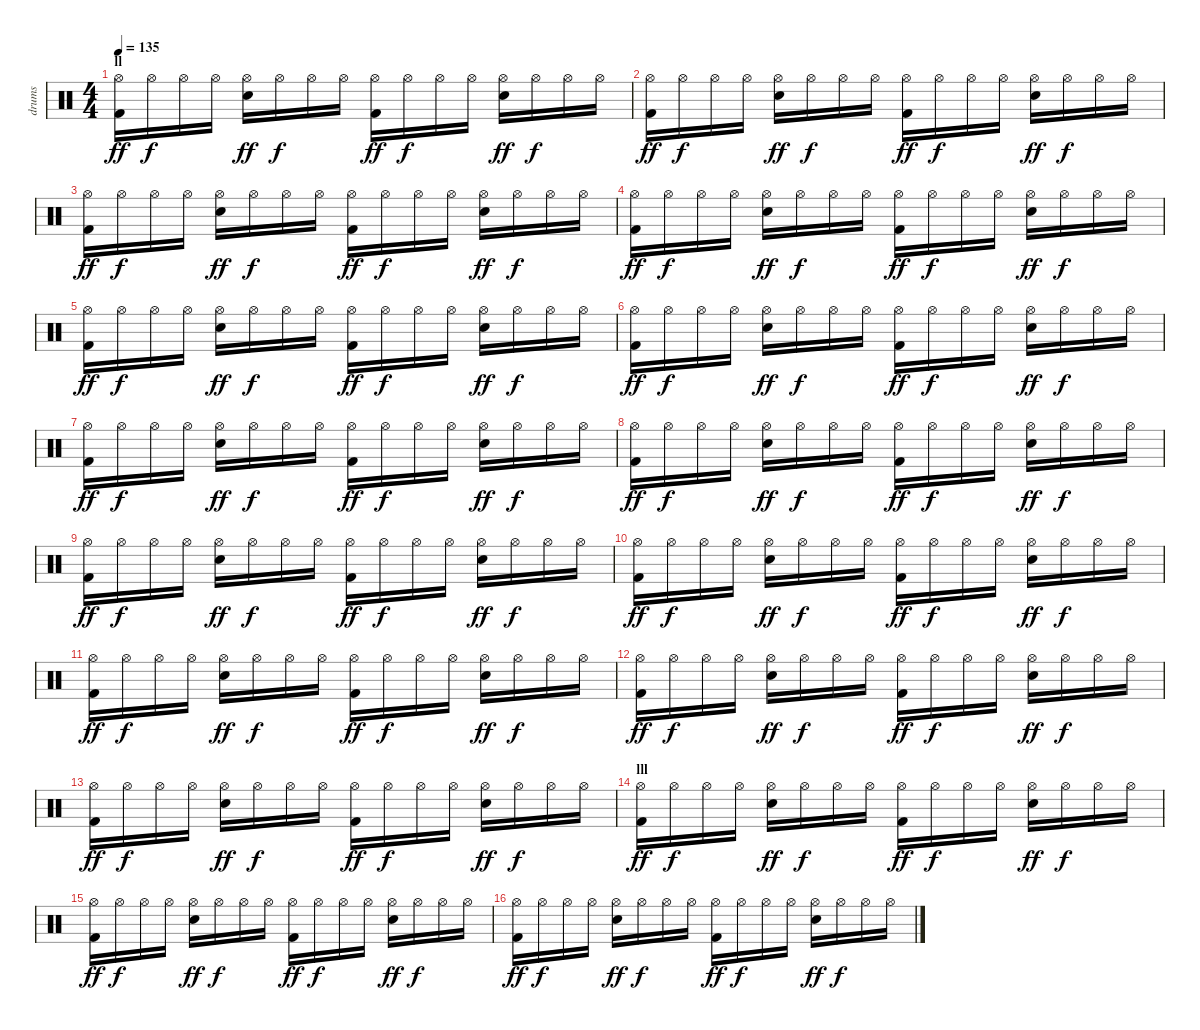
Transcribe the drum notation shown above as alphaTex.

\track ("drums" "drums") {instrument percussion}
\staff {score}
\articulation defaults
\ts (4 4)
\section ("" "ll")
\tempo 135
\clef neutral
\ks c
("Hi-Hat (open)" "Kick (hit) 2").16{dy ff} "Hi-Hat (open)".16{dy f} "Hi-Hat (open)".16 "Hi-Hat (open)".16 ("Hi-Hat (open)" "Electric Snare (hit)").16{dy ff} "Hi-Hat (open)".16{dy f} "Hi-Hat (open)".16 "Hi-Hat (open)".16 ("Hi-Hat (open)" "Kick (hit) 2").16{dy ff} "Hi-Hat (open)".16{dy f} "Hi-Hat (open)".16 "Hi-Hat (open)".16 ("Hi-Hat (open)" "Electric Snare (hit)").16{dy ff} "Hi-Hat (open)".16{dy f} "Hi-Hat (open)".16 "Hi-Hat (open)".16 |
("Hi-Hat (open)" "Kick (hit) 2").16{dy ff} "Hi-Hat (open)".16{dy f} "Hi-Hat (open)".16 "Hi-Hat (open)".16 ("Hi-Hat (open)" "Electric Snare (hit)").16{dy ff} "Hi-Hat (open)".16{dy f} "Hi-Hat (open)".16 "Hi-Hat (open)".16 ("Hi-Hat (open)" "Kick (hit) 2").16{dy ff} "Hi-Hat (open)".16{dy f} "Hi-Hat (open)".16 "Hi-Hat (open)".16 ("Hi-Hat (open)" "Electric Snare (hit)").16{dy ff} "Hi-Hat (open)".16{dy f} "Hi-Hat (open)".16 "Hi-Hat (open)".16 |
("Hi-Hat (open)" "Kick (hit) 2").16{dy ff} "Hi-Hat (open)".16{dy f} "Hi-Hat (open)".16 "Hi-Hat (open)".16 ("Hi-Hat (open)" "Electric Snare (hit)").16{dy ff} "Hi-Hat (open)".16{dy f} "Hi-Hat (open)".16 "Hi-Hat (open)".16 ("Hi-Hat (open)" "Kick (hit) 2").16{dy ff} "Hi-Hat (open)".16{dy f} "Hi-Hat (open)".16 "Hi-Hat (open)".16 ("Hi-Hat (open)" "Electric Snare (hit)").16{dy ff} "Hi-Hat (open)".16{dy f} "Hi-Hat (open)".16 "Hi-Hat (open)".16 |
("Hi-Hat (open)" "Kick (hit) 2").16{dy ff} "Hi-Hat (open)".16{dy f} "Hi-Hat (open)".16 "Hi-Hat (open)".16 ("Hi-Hat (open)" "Electric Snare (hit)").16{dy ff} "Hi-Hat (open)".16{dy f} "Hi-Hat (open)".16 "Hi-Hat (open)".16 ("Hi-Hat (open)" "Kick (hit) 2").16{dy ff} "Hi-Hat (open)".16{dy f} "Hi-Hat (open)".16 "Hi-Hat (open)".16 ("Hi-Hat (open)" "Electric Snare (hit)").16{dy ff} "Hi-Hat (open)".16{dy f} "Hi-Hat (open)".16 "Hi-Hat (open)".16 |
("Hi-Hat (open)" "Kick (hit) 2").16{dy ff} "Hi-Hat (open)".16{dy f} "Hi-Hat (open)".16 "Hi-Hat (open)".16 ("Hi-Hat (open)" "Electric Snare (hit)").16{dy ff} "Hi-Hat (open)".16{dy f} "Hi-Hat (open)".16 "Hi-Hat (open)".16 ("Hi-Hat (open)" "Kick (hit) 2").16{dy ff} "Hi-Hat (open)".16{dy f} "Hi-Hat (open)".16 "Hi-Hat (open)".16 ("Hi-Hat (open)" "Electric Snare (hit)").16{dy ff} "Hi-Hat (open)".16{dy f} "Hi-Hat (open)".16 "Hi-Hat (open)".16 |
("Hi-Hat (open)" "Kick (hit) 2").16{dy ff} "Hi-Hat (open)".16{dy f} "Hi-Hat (open)".16 "Hi-Hat (open)".16 ("Hi-Hat (open)" "Electric Snare (hit)").16{dy ff} "Hi-Hat (open)".16{dy f} "Hi-Hat (open)".16 "Hi-Hat (open)".16 ("Hi-Hat (open)" "Kick (hit) 2").16{dy ff} "Hi-Hat (open)".16{dy f} "Hi-Hat (open)".16 "Hi-Hat (open)".16 ("Hi-Hat (open)" "Electric Snare (hit)").16{dy ff} "Hi-Hat (open)".16{dy f} "Hi-Hat (open)".16 "Hi-Hat (open)".16 |
("Hi-Hat (open)" "Kick (hit) 2").16{dy ff} "Hi-Hat (open)".16{dy f} "Hi-Hat (open)".16 "Hi-Hat (open)".16 ("Hi-Hat (open)" "Electric Snare (hit)").16{dy ff} "Hi-Hat (open)".16{dy f} "Hi-Hat (open)".16 "Hi-Hat (open)".16 ("Hi-Hat (open)" "Kick (hit) 2").16{dy ff} "Hi-Hat (open)".16{dy f} "Hi-Hat (open)".16 "Hi-Hat (open)".16 ("Hi-Hat (open)" "Electric Snare (hit)").16{dy ff} "Hi-Hat (open)".16{dy f} "Hi-Hat (open)".16 "Hi-Hat (open)".16 |
("Hi-Hat (open)" "Kick (hit) 2").16{dy ff} "Hi-Hat (open)".16{dy f} "Hi-Hat (open)".16 "Hi-Hat (open)".16 ("Hi-Hat (open)" "Electric Snare (hit)").16{dy ff} "Hi-Hat (open)".16{dy f} "Hi-Hat (open)".16 "Hi-Hat (open)".16 ("Hi-Hat (open)" "Kick (hit) 2").16{dy ff} "Hi-Hat (open)".16{dy f} "Hi-Hat (open)".16 "Hi-Hat (open)".16 ("Hi-Hat (open)" "Electric Snare (hit)").16{dy ff} "Hi-Hat (open)".16{dy f} "Hi-Hat (open)".16 "Hi-Hat (open)".16 |
("Hi-Hat (open)" "Kick (hit) 2").16{dy ff} "Hi-Hat (open)".16{dy f} "Hi-Hat (open)".16 "Hi-Hat (open)".16 ("Hi-Hat (open)" "Electric Snare (hit)").16{dy ff} "Hi-Hat (open)".16{dy f} "Hi-Hat (open)".16 "Hi-Hat (open)".16 ("Hi-Hat (open)" "Kick (hit) 2").16{dy ff} "Hi-Hat (open)".16{dy f} "Hi-Hat (open)".16 "Hi-Hat (open)".16 ("Hi-Hat (open)" "Electric Snare (hit)").16{dy ff} "Hi-Hat (open)".16{dy f} "Hi-Hat (open)".16 "Hi-Hat (open)".16 |
("Hi-Hat (open)" "Kick (hit) 2").16{dy ff} "Hi-Hat (open)".16{dy f} "Hi-Hat (open)".16 "Hi-Hat (open)".16 ("Hi-Hat (open)" "Electric Snare (hit)").16{dy ff} "Hi-Hat (open)".16{dy f} "Hi-Hat (open)".16 "Hi-Hat (open)".16 ("Hi-Hat (open)" "Kick (hit) 2").16{dy ff} "Hi-Hat (open)".16{dy f} "Hi-Hat (open)".16 "Hi-Hat (open)".16 ("Hi-Hat (open)" "Electric Snare (hit)").16{dy ff} "Hi-Hat (open)".16{dy f} "Hi-Hat (open)".16 "Hi-Hat (open)".16 |
("Hi-Hat (open)" "Kick (hit) 2").16{dy ff} "Hi-Hat (open)".16{dy f} "Hi-Hat (open)".16 "Hi-Hat (open)".16 ("Hi-Hat (open)" "Electric Snare (hit)").16{dy ff} "Hi-Hat (open)".16{dy f} "Hi-Hat (open)".16 "Hi-Hat (open)".16 ("Hi-Hat (open)" "Kick (hit) 2").16{dy ff} "Hi-Hat (open)".16{dy f} "Hi-Hat (open)".16 "Hi-Hat (open)".16 ("Hi-Hat (open)" "Electric Snare (hit)").16{dy ff} "Hi-Hat (open)".16{dy f} "Hi-Hat (open)".16 "Hi-Hat (open)".16 |
("Hi-Hat (open)" "Kick (hit) 2").16{dy ff} "Hi-Hat (open)".16{dy f} "Hi-Hat (open)".16 "Hi-Hat (open)".16 ("Hi-Hat (open)" "Electric Snare (hit)").16{dy ff} "Hi-Hat (open)".16{dy f} "Hi-Hat (open)".16 "Hi-Hat (open)".16 ("Hi-Hat (open)" "Kick (hit) 2").16{dy ff} "Hi-Hat (open)".16{dy f} "Hi-Hat (open)".16 "Hi-Hat (open)".16 ("Hi-Hat (open)" "Electric Snare (hit)").16{dy ff} "Hi-Hat (open)".16{dy f} "Hi-Hat (open)".16 "Hi-Hat (open)".16 |
("Hi-Hat (open)" "Kick (hit) 2").16{dy ff} "Hi-Hat (open)".16{dy f} "Hi-Hat (open)".16 "Hi-Hat (open)".16 ("Hi-Hat (open)" "Electric Snare (hit)").16{dy ff} "Hi-Hat (open)".16{dy f} "Hi-Hat (open)".16 "Hi-Hat (open)".16 ("Hi-Hat (open)" "Kick (hit) 2").16{dy ff} "Hi-Hat (open)".16{dy f} "Hi-Hat (open)".16 "Hi-Hat (open)".16 ("Hi-Hat (open)" "Electric Snare (hit)").16{dy ff} "Hi-Hat (open)".16{dy f} "Hi-Hat (open)".16 "Hi-Hat (open)".16 |
\section ("" "lll")
("Hi-Hat (open)" "Kick (hit) 2").16{dy ff} "Hi-Hat (open)".16{dy f} "Hi-Hat (open)".16 "Hi-Hat (open)".16 ("Hi-Hat (open)" "Electric Snare (hit)").16{dy ff} "Hi-Hat (open)".16{dy f} "Hi-Hat (open)".16 "Hi-Hat (open)".16 ("Hi-Hat (open)" "Kick (hit) 2").16{dy ff} "Hi-Hat (open)".16{dy f} "Hi-Hat (open)".16 "Hi-Hat (open)".16 ("Hi-Hat (open)" "Electric Snare (hit)").16{dy ff} "Hi-Hat (open)".16{dy f} "Hi-Hat (open)".16 "Hi-Hat (open)".16 |
("Hi-Hat (open)" "Kick (hit) 2").16{dy ff} "Hi-Hat (open)".16{dy f} "Hi-Hat (open)".16 "Hi-Hat (open)".16 ("Hi-Hat (open)" "Electric Snare (hit)").16{dy ff} "Hi-Hat (open)".16{dy f} "Hi-Hat (open)".16 "Hi-Hat (open)".16 ("Hi-Hat (open)" "Kick (hit) 2").16{dy ff} "Hi-Hat (open)".16{dy f} "Hi-Hat (open)".16 "Hi-Hat (open)".16 ("Hi-Hat (open)" "Electric Snare (hit)").16{dy ff} "Hi-Hat (open)".16{dy f} "Hi-Hat (open)".16 "Hi-Hat (open)".16 |
("Hi-Hat (open)" "Kick (hit) 2").16{dy ff} "Hi-Hat (open)".16{dy f} "Hi-Hat (open)".16 "Hi-Hat (open)".16 ("Hi-Hat (open)" "Electric Snare (hit)").16{dy ff} "Hi-Hat (open)".16{dy f} "Hi-Hat (open)".16 "Hi-Hat (open)".16 ("Hi-Hat (open)" "Kick (hit) 2").16{dy ff} "Hi-Hat (open)".16{dy f} "Hi-Hat (open)".16 "Hi-Hat (open)".16 ("Hi-Hat (open)" "Electric Snare (hit)").16{dy ff} "Hi-Hat (open)".16{dy f} "Hi-Hat (open)".16 "Hi-Hat (open)".16
